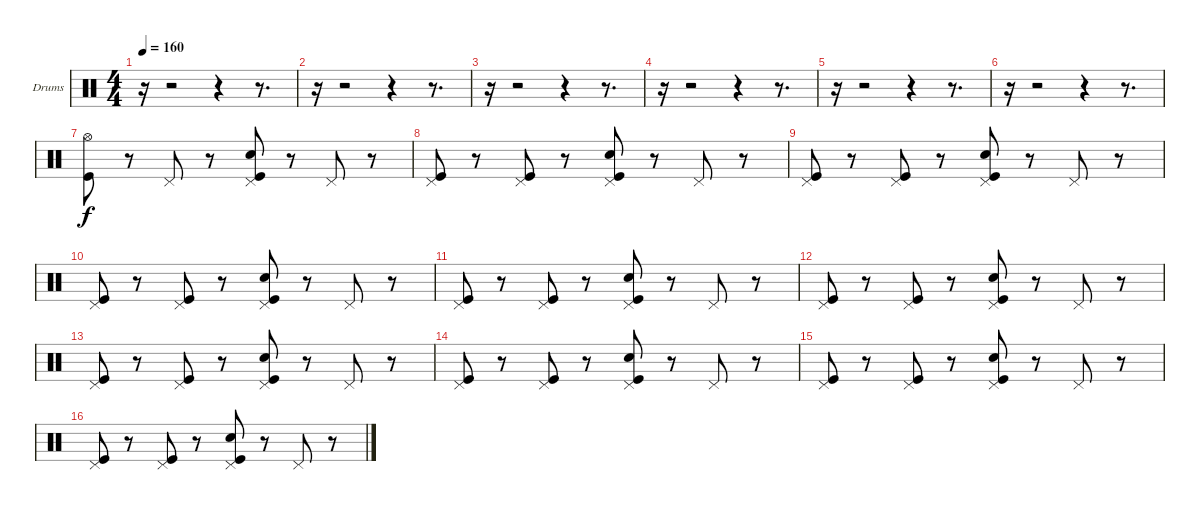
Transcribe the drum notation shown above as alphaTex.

\defaultSystemsLayout 4
\bracketExtendMode groupsimilarinstruments
\firstSystemTrackNameOrientation horizontal
\otherSystemsTrackNameOrientation horizontal
\track ("Drumkit" "Drums") {solo instrument percussion}
\staff {score}
\articulation defaults
\ts (4 4)
\tempo 160
\clef neutral
\ks c
r.16{dy f} r.2 r.4 r.8{d} |
r.16 r.2 r.4 r.8{d} |
r.16 r.2 r.4 r.8{d} |
r.16 r.2 r.4 r.8{d} |
r.16 r.2 r.4 r.8{d} |
r.16 r.2 r.4 r.8{d} |
("Hi-Hat (open)" "Kick (hit)").8 r.8 "Pedal Hi-Hat (hit)".8 r.8 ("Pedal Hi-Hat (hit)" "Snare (hit) 2" "Kick (hit)").8 r.8 "Pedal Hi-Hat (hit)".8 r.8 |
("Pedal Hi-Hat (hit)" "Kick (hit)").8 r.8 ("Pedal Hi-Hat (hit)" "Kick (hit)").8 r.8 ("Pedal Hi-Hat (hit)" "Snare (hit) 2" "Kick (hit)").8 r.8 "Pedal Hi-Hat (hit)".8 r.8 |
("Pedal Hi-Hat (hit)" "Kick (hit)").8 r.8 ("Pedal Hi-Hat (hit)" "Kick (hit)").8 r.8 ("Pedal Hi-Hat (hit)" "Snare (hit) 2" "Kick (hit)").8 r.8 "Pedal Hi-Hat (hit)".8 r.8 |
("Pedal Hi-Hat (hit)" "Kick (hit)").8 r.8 ("Pedal Hi-Hat (hit)" "Kick (hit)").8 r.8 ("Pedal Hi-Hat (hit)" "Snare (hit) 2" "Kick (hit)").8 r.8 "Pedal Hi-Hat (hit)".8 r.8 |
("Pedal Hi-Hat (hit)" "Kick (hit)").8 r.8 ("Pedal Hi-Hat (hit)" "Kick (hit)").8 r.8 ("Pedal Hi-Hat (hit)" "Snare (hit) 2" "Kick (hit)").8 r.8 "Pedal Hi-Hat (hit)".8 r.8 |
("Pedal Hi-Hat (hit)" "Kick (hit)").8 r.8 ("Pedal Hi-Hat (hit)" "Kick (hit)").8 r.8 ("Pedal Hi-Hat (hit)" "Snare (hit) 2" "Kick (hit)").8 r.8 "Pedal Hi-Hat (hit)".8 r.8 |
("Pedal Hi-Hat (hit)" "Kick (hit)").8 r.8 ("Pedal Hi-Hat (hit)" "Kick (hit)").8 r.8 ("Pedal Hi-Hat (hit)" "Snare (hit) 2" "Kick (hit)").8 r.8 "Pedal Hi-Hat (hit)".8 r.8 |
("Pedal Hi-Hat (hit)" "Kick (hit)").8 r.8 ("Pedal Hi-Hat (hit)" "Kick (hit)").8 r.8 ("Pedal Hi-Hat (hit)" "Snare (hit) 2" "Kick (hit)").8 r.8 "Pedal Hi-Hat (hit)".8 r.8 |
("Pedal Hi-Hat (hit)" "Kick (hit)").8 r.8 ("Pedal Hi-Hat (hit)" "Kick (hit)").8 r.8 ("Pedal Hi-Hat (hit)" "Snare (hit) 2" "Kick (hit)").8 r.8 "Pedal Hi-Hat (hit)".8 r.8 |
("Pedal Hi-Hat (hit)" "Kick (hit)").8 r.8 ("Pedal Hi-Hat (hit)" "Kick (hit)").8 r.8 ("Pedal Hi-Hat (hit)" "Snare (hit) 2" "Kick (hit)").8 r.8 "Pedal Hi-Hat (hit)".8 r.8
